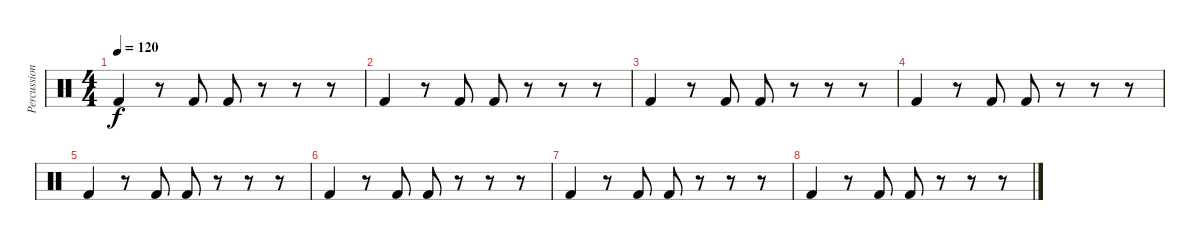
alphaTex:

\track ("Percussion" "Percussion") {instrument percussion}
\staff {score}
\articulation defaults
\ts (4 4)
\tempo 120
\clef neutral
\ks c "Kick (hit) 2".4{dy f}
r.8 "Kick (hit) 2".8 "Kick (hit) 2".8 r.8 r.8 r.8 |
"Kick (hit) 2".4 r.8 "Kick (hit) 2".8 "Kick (hit) 2".8 r.8 r.8 r.8 |
"Kick (hit) 2".4 r.8 "Kick (hit) 2".8 "Kick (hit) 2".8 r.8 r.8 r.8 |
"Kick (hit) 2".4 r.8 "Kick (hit) 2".8 "Kick (hit) 2".8 r.8 r.8 r.8 |
"Kick (hit) 2".4 r.8 "Kick (hit) 2".8 "Kick (hit) 2".8 r.8 r.8 r.8 |
"Kick (hit) 2".4 r.8 "Kick (hit) 2".8 "Kick (hit) 2".8 r.8 r.8 r.8 |
"Kick (hit) 2".4 r.8 "Kick (hit) 2".8 "Kick (hit) 2".8 r.8 r.8 r.8 |
"Kick (hit) 2".4 r.8 "Kick (hit) 2".8 "Kick (hit) 2".8 r.8 r.8 r.8
